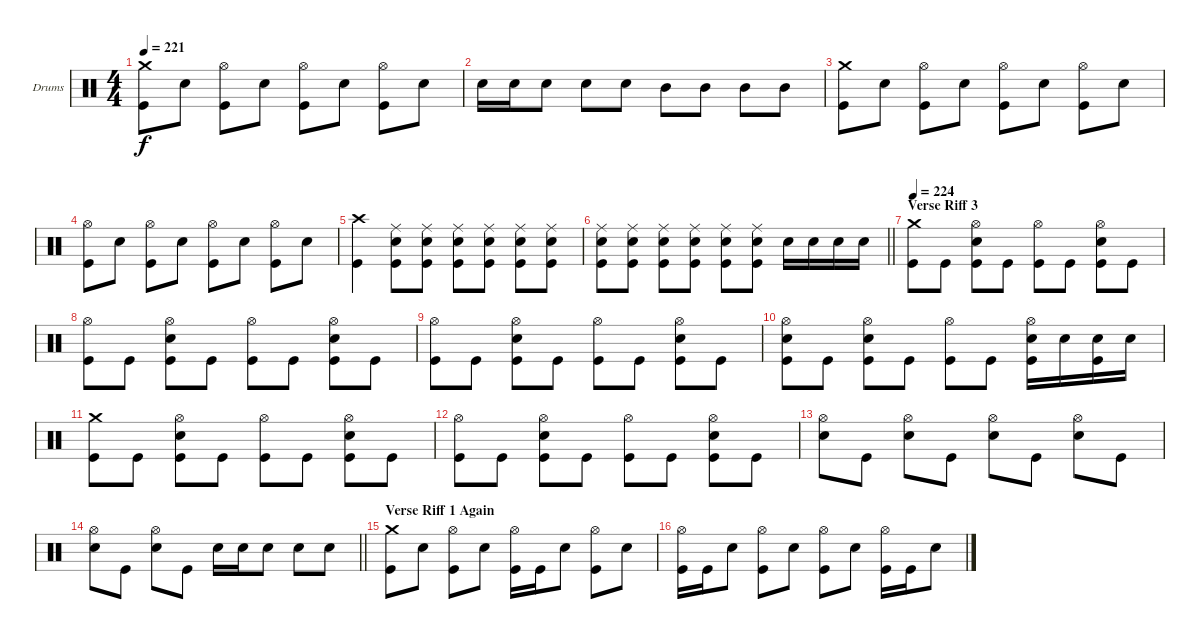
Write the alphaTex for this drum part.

\bracketExtendMode groupsimilarinstruments
\firstSystemTrackNameOrientation horizontal
\otherSystemsTrackNameOrientation horizontal
\track ("Drumkit" "Drums") {instrument percussion}
\staff {score}
\articulation defaults
\ts (4 4)
\tempo 221
\clef neutral
\ks c
("Crash medium (hit)" "Kick (hit)").8{dy f} "Snare (hit) 2".8 ("Hi-Hat (open)" "Kick (hit)").8 "Snare (hit) 2".8 ("Hi-Hat (open)" "Kick (hit)").8 "Snare (hit) 2".8 ("Hi-Hat (open)" "Kick (hit)").8 "Snare (hit) 2".8 |
"Snare (hit) 2".16 "Snare (hit) 2".16 "Snare (hit) 2".8 "Snare (hit) 2".8 "Snare (hit) 2".8 "Mid Tom (hit)".8 "Mid Tom (hit)".8 "Mid Tom (hit)".8 "Mid Tom (hit)".8 |
("Crash medium (hit)" "Kick (hit)").8 "Snare (hit) 2".8 ("Hi-Hat (open)" "Kick (hit)").8 "Snare (hit) 2".8 ("Hi-Hat (open)" "Kick (hit)").8 "Snare (hit) 2".8 ("Hi-Hat (open)" "Kick (hit)").8 "Snare (hit) 2".8 |
("Hi-Hat (open)" "Kick (hit)").8 "Snare (hit) 2".8 ("Hi-Hat (open)" "Kick (hit)").8 "Snare (hit) 2".8 ("Hi-Hat (open)" "Kick (hit)").8 "Snare (hit) 2".8 ("Hi-Hat (open)" "Kick (hit)").8 "Snare (hit) 2".8 |
("Crash high (hit)" "Kick (hit)").4 ("Ride (middle)" "Snare (hit) 2" "Kick (hit)").8 ("Ride (middle)" "Snare (hit) 2" "Kick (hit)").8 ("Ride (middle)" "Snare (hit) 2" "Kick (hit)").8 ("Ride (middle)" "Snare (hit) 2" "Kick (hit)").8 ("Ride (middle)" "Snare (hit) 2" "Kick (hit)").8 ("Ride (middle)" "Snare (hit) 2" "Kick (hit)").8 |
\barLineRight lightlight
("Ride (middle)" "Snare (hit) 2" "Kick (hit)").8 ("Ride (middle)" "Snare (hit) 2" "Kick (hit)").8 ("Ride (middle)" "Snare (hit) 2" "Kick (hit)").8 ("Ride (middle)" "Snare (hit) 2" "Kick (hit)").8 ("Ride (middle)" "Snare (hit) 2" "Kick (hit)").8 ("Ride (middle)" "Snare (hit) 2" "Kick (hit)").8 "Snare (hit) 2".16 "Snare (hit) 2".16 "Snare (hit) 2".16 "Snare (hit) 2".16 |
\section ("" "Verse Riff 3")
\tempo 224
("Crash medium (hit)" "Kick (hit)").8 "Kick (hit)".8 ("Hi-Hat (open)" "Snare (hit) 2" "Kick (hit)").8 "Kick (hit)".8 ("Hi-Hat (open)" "Kick (hit)").8 "Kick (hit)".8 ("Hi-Hat (open)" "Snare (hit) 2" "Kick (hit)").8 "Kick (hit)".8 |
("Hi-Hat (open)" "Kick (hit)").8 "Kick (hit)".8 ("Hi-Hat (open)" "Snare (hit) 2" "Kick (hit)").8 "Kick (hit)".8 ("Hi-Hat (open)" "Kick (hit)").8 "Kick (hit)".8 ("Hi-Hat (open)" "Snare (hit) 2" "Kick (hit)").8 "Kick (hit)".8 |
("Hi-Hat (open)" "Kick (hit)").8 "Kick (hit)".8 ("Hi-Hat (open)" "Snare (hit) 2" "Kick (hit)").8 "Kick (hit)".8 ("Hi-Hat (open)" "Kick (hit)").8 "Kick (hit)".8 ("Hi-Hat (open)" "Snare (hit) 2" "Kick (hit)").8 "Kick (hit)".8 |
("Hi-Hat (open)" "Snare (hit) 2" "Kick (hit)").8 "Kick (hit)".8 ("Hi-Hat (open)" "Snare (hit) 2" "Kick (hit)").8 "Kick (hit)".8 ("Hi-Hat (open)" "Kick (hit)").8 "Kick (hit)".8 ("Hi-Hat (open)" "Snare (hit) 2" "Kick (hit)").16 "Snare (hit) 2".16 ("Snare (hit) 2" "Kick (hit)").16 "Snare (hit) 2".16 |
("Crash medium (hit)" "Kick (hit)").8 "Kick (hit)".8 ("Hi-Hat (open)" "Snare (hit) 2" "Kick (hit)").8 "Kick (hit)".8 ("Hi-Hat (open)" "Kick (hit)").8 "Kick (hit)".8 ("Hi-Hat (open)" "Snare (hit) 2" "Kick (hit)").8 "Kick (hit)".8 |
("Hi-Hat (open)" "Kick (hit)").8 "Kick (hit)".8 ("Hi-Hat (open)" "Snare (hit) 2" "Kick (hit)").8 "Kick (hit)".8 ("Hi-Hat (open)" "Kick (hit)").8 "Kick (hit)".8 ("Hi-Hat (open)" "Snare (hit) 2" "Kick (hit)").8 "Kick (hit)".8 |
("Hi-Hat (open)" "Snare (hit) 2").8 "Kick (hit)".8 ("Hi-Hat (open)" "Snare (hit) 2").8 "Kick (hit)".8 ("Hi-Hat (open)" "Snare (hit) 2").8 "Kick (hit)".8 ("Hi-Hat (open)" "Snare (hit) 2").8 "Kick (hit)".8 |
\barLineRight lightlight
("Hi-Hat (open)" "Snare (hit) 2").8 "Kick (hit)".8 ("Hi-Hat (open)" "Snare (hit) 2").8 "Kick (hit)".8 "Snare (hit) 2".16 "Snare (hit) 2".16 "Snare (hit) 2".8 "Snare (hit) 2".8 "Snare (hit) 2".8 |
\section ("" "Verse Riff 1 Again")
("Crash medium (hit)" "Kick (hit)").8 "Snare (hit) 2".8 ("Hi-Hat (open)" "Kick (hit)").8 "Snare (hit) 2".8 ("Hi-Hat (open)" "Kick (hit)").16 "Kick (hit)".16 "Snare (hit) 2".8 ("Hi-Hat (open)" "Kick (hit)").8 "Snare (hit) 2".8 |
("Hi-Hat (open)" "Kick (hit)").16 "Kick (hit)".16 "Snare (hit) 2".8 ("Hi-Hat (open)" "Kick (hit)").8 "Snare (hit) 2".8 ("Hi-Hat (open)" "Kick (hit)").8 "Snare (hit) 2".8 ("Hi-Hat (open)" "Kick (hit)").16 "Kick (hit)".16 "Snare (hit) 2".8
